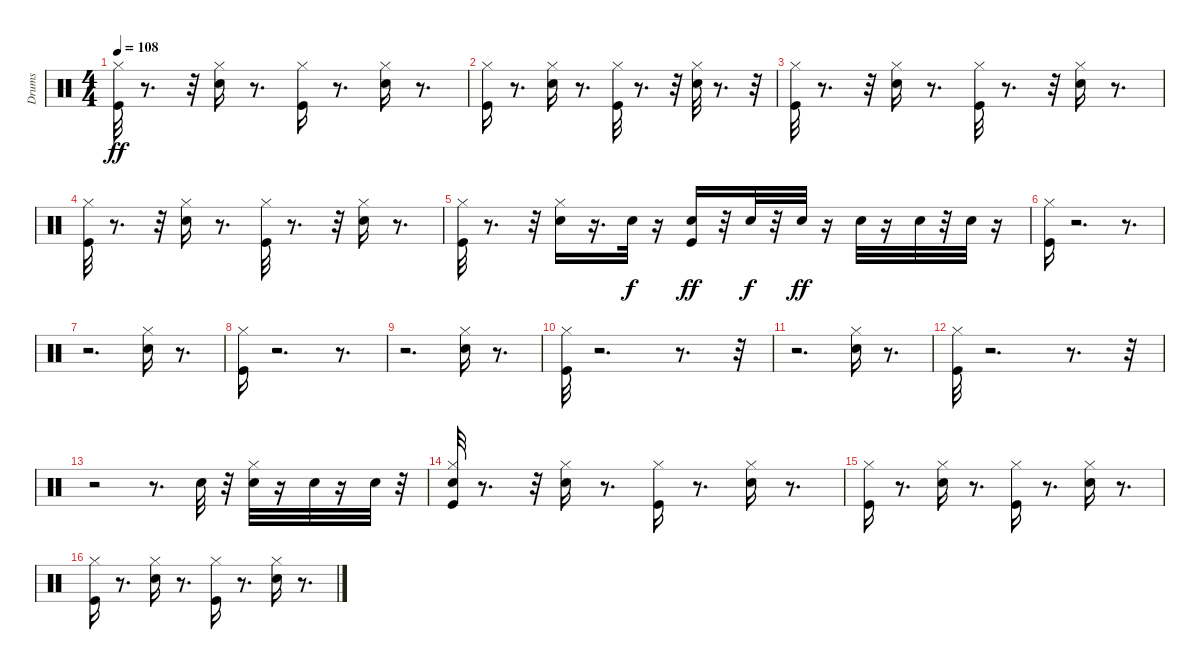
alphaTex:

\track ("Drums" "Drums") {instrument percussion}
\staff {score}
\articulation defaults
\ts (4 4)
\tempo 108
\clef neutral
\ks c
("Kick (hit)" "Hi-Hat (closed)").32{dy ff} r.8{d} r.32 ("Electric Snare (hit)" "Hi-Hat (closed)").16 r.8{d} ("Kick (hit)" "Hi-Hat (closed)").16 r.8{d} ("Electric Snare (hit)" "Hi-Hat (closed)").16 r.8{d} |
("Kick (hit)" "Hi-Hat (closed)").16 r.8{d} ("Electric Snare (hit)" "Hi-Hat (closed)").16 r.8{d} ("Kick (hit)" "Hi-Hat (closed)").32 r.8{d} r.32 ("Electric Snare (hit)" "Hi-Hat (closed)").32 r.8{d} r.32 |
("Hi-Hat (closed)" "Kick (hit)").32 r.8{d} r.32 ("Electric Snare (hit)" "Hi-Hat (closed)").16 r.8{d} ("Kick (hit)" "Hi-Hat (closed)").32 r.8{d} r.32 ("Electric Snare (hit)" "Hi-Hat (closed)").16 r.8{d} |
("Kick (hit)" "Hi-Hat (closed)").32 r.8{d} r.32 ("Electric Snare (hit)" "Hi-Hat (closed)").16 r.8{d} ("Kick (hit)" "Hi-Hat (closed)").32 r.8{d} r.32 ("Electric Snare (hit)" "Hi-Hat (closed)").16 r.8{d} |
("Kick (hit)" "Hi-Hat (closed)").32 r.8{d} r.32 ("Electric Snare (hit)" "Hi-Hat (closed)").16 r.16{d} "Electric Snare (hit)".32{dy f} r.16 ("Kick (hit)" "Electric Snare (hit)").16{dy ff} r.32 "Electric Snare (hit)".32{dy f} r.32 "Electric Snare (hit)".32{dy ff} r.16 "Electric Snare (hit)".32 r.16 "Electric Snare (hit)".32 r.32 "Electric Snare (hit)".32 r.16 |
("Hi-Hat (closed)" "Kick (hit)").16 r.2{d} r.8{d} |
r.2{d} ("Electric Snare (hit)" "Hi-Hat (closed)").16 r.8{d} |
("Kick (hit)" "Hi-Hat (closed)").16 r.2{d} r.8{d} |
r.2{d} ("Hi-Hat (closed)" "Electric Snare (hit)").16 r.8{d} |
("Hi-Hat (closed)" "Kick (hit)").32 r.2{d} r.8{d} r.32 |
r.2{d} ("Hi-Hat (closed)" "Electric Snare (hit)").16 r.8{d} |
("Hi-Hat (closed)" "Kick (hit)").32 r.2{d} r.8{d} r.32 |
r.2 r.8{d} "Electric Snare (hit)".32 r.32 ("Hi-Hat (closed)" "Electric Snare (hit)").32 r.16 "Electric Snare (hit)".32 r.16 "Electric Snare (hit)".32 r.32 |
("Electric Snare (hit)" "Kick (hit)" "Hi-Hat (closed)").32 r.8{d} r.32 ("Electric Snare (hit)" "Hi-Hat (closed)").16 r.8{d} ("Hi-Hat (closed)" "Kick (hit)").16 r.8{d} ("Hi-Hat (closed)" "Electric Snare (hit)").16 r.8{d} |
("Hi-Hat (closed)" "Kick (hit)").16 r.8{d} ("Hi-Hat (closed)" "Electric Snare (hit)").16 r.8{d} ("Kick (hit)" "Hi-Hat (closed)").16 r.8{d} ("Hi-Hat (closed)" "Electric Snare (hit)").16 r.8{d} |
("Hi-Hat (closed)" "Kick (hit)").16 r.8{d} ("Hi-Hat (closed)" "Electric Snare (hit)").16 r.8{d} ("Hi-Hat (closed)" "Kick (hit)").16 r.8{d} ("Electric Snare (hit)" "Hi-Hat (closed)").16 r.8{d}
